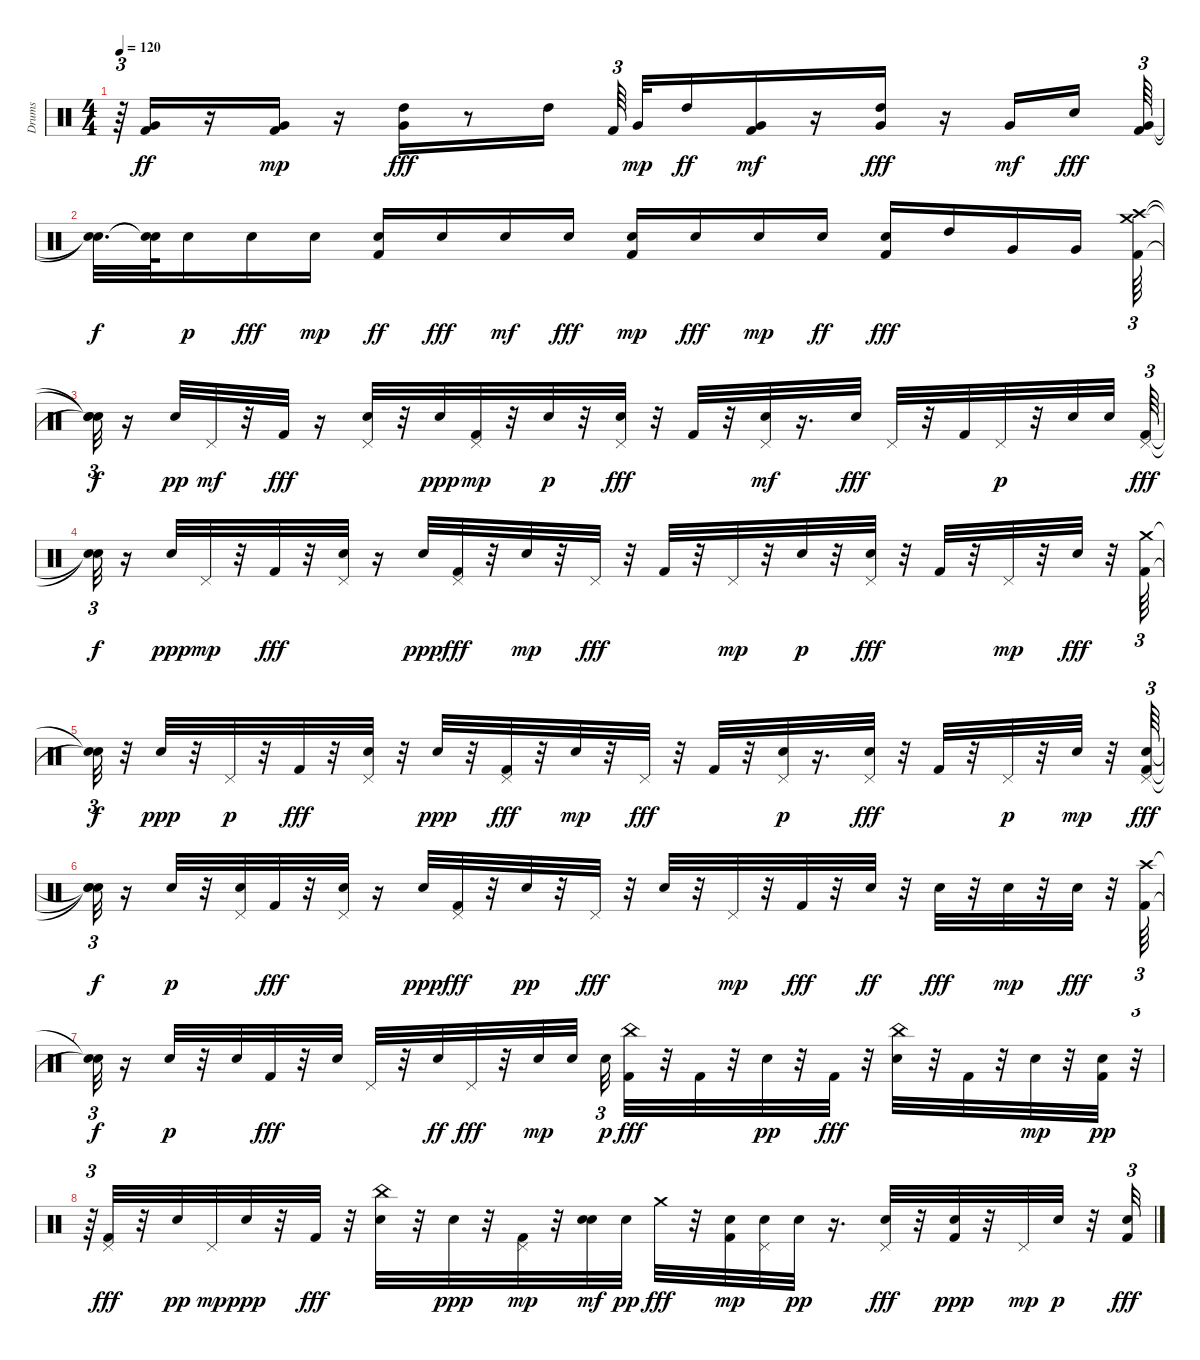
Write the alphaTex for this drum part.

\track ("Drums" "Drums") {instrument percussion}
\staff {score}
\articulation defaults
\ts (4 4)
\tempo 120
\clef neutral
\ks c
r.64{tu (3 2) dy f} ("Kick (hit) 2" "Very Low Tom (hit)").16{dy ff} r.16 ("Kick (hit) 2" "Very Low Tom (hit)").16{dy mp} r.16 ("Very Low Tom (hit)" "High Tom (hit)").16{dy fff} r.8 "High Tom (hit)".16 "Kick (hit) 2".64{tu (3 2) beam splitsecondary} "Very Low Tom (hit)".32{dy mp} "High Tom (hit)".16{dy ff} ("Kick (hit) 2" "Very Low Tom (hit)").16{dy mf} r.16 ("Very Low Tom (hit)" "High Tom (hit)").16{dy fff} r.16 "Very Low Tom (hit)".16{dy mf} "Snare (hit) 2".16{dy fff beam splitsecondary} ("Very Low Tom (hit)" "Kick (hit) 2").64{tu (3 2)} |
("Snare (hit)"{t} "Snare (hit)"{t}).32{d dy f} ("Snare (hit)"{t} "Snare (hit)"{t}).64 "Snare (hit) 2".16{dy p} "Snare (hit) 2".16{dy fff} "Snare (hit) 2".16{dy mp} ("Kick (hit) 2" "Snare (hit) 2").16{dy ff} "Snare (hit) 2".16{dy fff} "Snare (hit) 2".16{dy mf} "Snare (hit) 2".16{dy fff} ("Kick (hit) 2" "Snare (hit) 2").16{dy mp} "Snare (hit) 2".16{dy fff} "Snare (hit) 2".16{dy mp} "Snare (hit) 2".16{dy ff} ("Kick (hit) 2" "Snare (hit) 2").16{dy fff} "High Tom (hit)".16 "Very Low Tom (hit)".16 "Very Low Tom (hit)".16 ("Kick (hit) 2" "Crash medium (hit)" "Crash high (hit)").64{tu (3 2)} |
("Snare (hit)"{t} "Snare (hit)"{t} "Snare (hit)"{t}).32{tu (3 2) dy f} r.16 "Snare (hit) 2".32{dy pp} "Pedal Hi-Hat (hit)".32{dy mf} r.32 "Kick (hit) 2".32{dy fff} r.16 ("Snare (hit) 2" "Pedal Hi-Hat (hit)").32 r.32 "Snare (hit) 2".32{dy ppp} ("Kick (hit) 2" "Pedal Hi-Hat (hit)").32{dy mp} r.32 "Snare (hit) 2".32{dy p} r.32 ("Snare (hit) 2" "Pedal Hi-Hat (hit)").32{dy fff} r.32 "Kick (hit) 2".32 r.32 ("Snare (hit) 2" "Pedal Hi-Hat (hit)").32{dy mf} r.16{d} "Snare (hit) 2".32{dy fff} "Pedal Hi-Hat (hit)".32 r.32 "Kick (hit) 2".32 "Pedal Hi-Hat (hit)".32{dy p} r.32 "Snare (hit) 2".32 "Snare (hit) 2".32{beam splitsecondary} ("Kick (hit) 2" "Pedal Hi-Hat (hit)").64{tu (3 2) dy fff} |
("Snare (hit)"{t} "Snare (hit)"{t}).32{tu (3 2) dy f} r.16 "Snare (hit) 2".32{dy ppp} "Pedal Hi-Hat (hit)".32{dy mp} r.32 "Kick (hit) 2".32{dy fff} r.32 ("Snare (hit) 2" "Pedal Hi-Hat (hit)").32 r.16 "Snare (hit) 2".32{dy ppp} ("Pedal Hi-Hat (hit)" "Kick (hit) 2").32{dy fff} r.32 "Snare (hit) 2".32{dy mp} r.32 "Pedal Hi-Hat (hit)".32{dy fff} r.32 "Kick (hit) 2".32 r.32 "Pedal Hi-Hat (hit)".32{dy mp} r.32 "Snare (hit) 2".32{dy p} r.32 ("Snare (hit) 2" "Pedal Hi-Hat (hit)").32{dy fff} r.32 "Kick (hit) 2".32 r.32 "Pedal Hi-Hat (hit)".32{dy mp} r.32 "Snare (hit) 2".32{dy fff} r.32 ("Kick (hit) 2" "Crash medium (hit)").64{tu (3 2)} |
("Snare (hit)"{t} "Snare (hit)"{t}).32{tu (3 2) dy f} r.32 "Snare (hit) 2".32{dy ppp} r.32 "Pedal Hi-Hat (hit)".32{dy p} r.32 "Kick (hit) 2".32{dy fff} r.32 ("Snare (hit) 2" "Pedal Hi-Hat (hit)").32 r.32 "Snare (hit) 2".32{dy ppp} r.32 ("Pedal Hi-Hat (hit)" "Kick (hit) 2").32{dy fff} r.32 "Snare (hit) 2".32{dy mp} r.32 "Pedal Hi-Hat (hit)".32{dy fff} r.32 "Kick (hit) 2".32 r.32 ("Pedal Hi-Hat (hit)" "Snare (hit) 2").32{dy p} r.16{d} ("Snare (hit) 2" "Pedal Hi-Hat (hit)").32{dy fff} r.32 "Kick (hit) 2".32 r.32 "Pedal Hi-Hat (hit)".32{dy p} r.32 "Snare (hit) 2".32{dy mp} r.32 ("Snare (hit) 2" "Kick (hit) 2" "Pedal Hi-Hat (hit)").64{tu (3 2) dy fff} |
("Snare (hit)"{t} "Snare (hit)"{t} "Snare (hit)"{t}).32{tu (3 2) dy f} r.16 "Snare (hit) 2".32{dy p} r.32 ("Pedal Hi-Hat (hit)" "Snare (hit) 2").32 "Kick (hit) 2".32{dy fff} r.32 ("Snare (hit) 2" "Pedal Hi-Hat (hit)").32 r.16 "Snare (hit) 2".32{dy ppp} ("Pedal Hi-Hat (hit)" "Kick (hit) 2").32{dy fff} r.32 "Snare (hit) 2".32{dy pp} r.32 "Pedal Hi-Hat (hit)".32{dy fff} r.32 "Snare (hit) 2".32 r.32 "Pedal Hi-Hat (hit)".32{dy mp} r.32 "Kick (hit) 2".32{dy fff} r.32 "Snare (hit) 2".32{dy ff} r.32 "Snare (hit) 2".32{dy fff} r.32 "Snare (hit) 2".32{dy mp} r.32 "Snare (hit) 2".32{dy fff} r.32 ("Kick (hit) 2" "Crash high (hit)").64{tu (3 2)} |
("Snare (hit)"{t} "Snare (hit)"{t}).32{tu (3 2) dy f} r.16 "Snare (hit) 2".32{dy p} r.32 "Snare (hit) 2".32 "Kick (hit) 2".32{dy fff} r.32 "Snare (hit) 2".32 "Pedal Hi-Hat (hit)".32 r.32 "Snare (hit) 2".32{dy ff} "Pedal Hi-Hat (hit)".32{dy fff} r.32 "Snare (hit) 2".32{dy mp} "Snare (hit) 2".32{beam splitsecondary} "Snare (hit) 2".32{tu (3 2) dy p} ("Kick (hit) 2" "China (hit)").32{dy fff} r.32 "Kick (hit) 2".32 r.32 "Snare (hit) 2".32{dy pp} r.32 "Kick (hit) 2".32{dy fff} r.32 ("Snare (hit) 2" "China (hit)").32 r.32 "Kick (hit) 2".32 r.32 "Snare (hit) 2".32{dy mp} r.32 ("Kick (hit) 2" "Snare (hit) 2").32{dy pp} r.32{tu (3 2)} |
r.64{tu (3 2)} ("Kick (hit) 2" "Pedal Hi-Hat (hit)").32{dy fff} r.32 "Snare (hit) 2".32{dy pp} "Pedal Hi-Hat (hit)".32{dy mp} "Snare (hit) 2".32{dy ppp} r.32 "Kick (hit) 2".32{dy fff} r.32 ("Snare (hit) 2" "China (hit)").32 r.32 "Snare (hit) 2".32{dy ppp} r.32 ("Kick (hit) 2" "Pedal Hi-Hat (hit)").32{dy mp} r.32 ("Snare (hit) 2" "Snare (hit) 2").32{dy mf} "Snare (hit) 2".32{dy pp} "Crash medium (hit)".32{dy fff} r.32 ("Kick (hit) 2" "Snare (hit) 2").32{dy mp} ("Snare (hit) 2" "Pedal Hi-Hat (hit)").32 "Snare (hit) 2".32{dy pp} r.16{d} ("Snare (hit) 2" "Pedal Hi-Hat (hit)").32{dy fff} r.32 ("Kick (hit) 2" "Snare (hit) 2").32{dy ppp} r.32 "Pedal Hi-Hat (hit)".32{dy mp} "Snare (hit) 2".32{dy p} r.32 ("Snare (hit) 2" "Kick (hit) 2").32{tu (3 2) dy fff}
